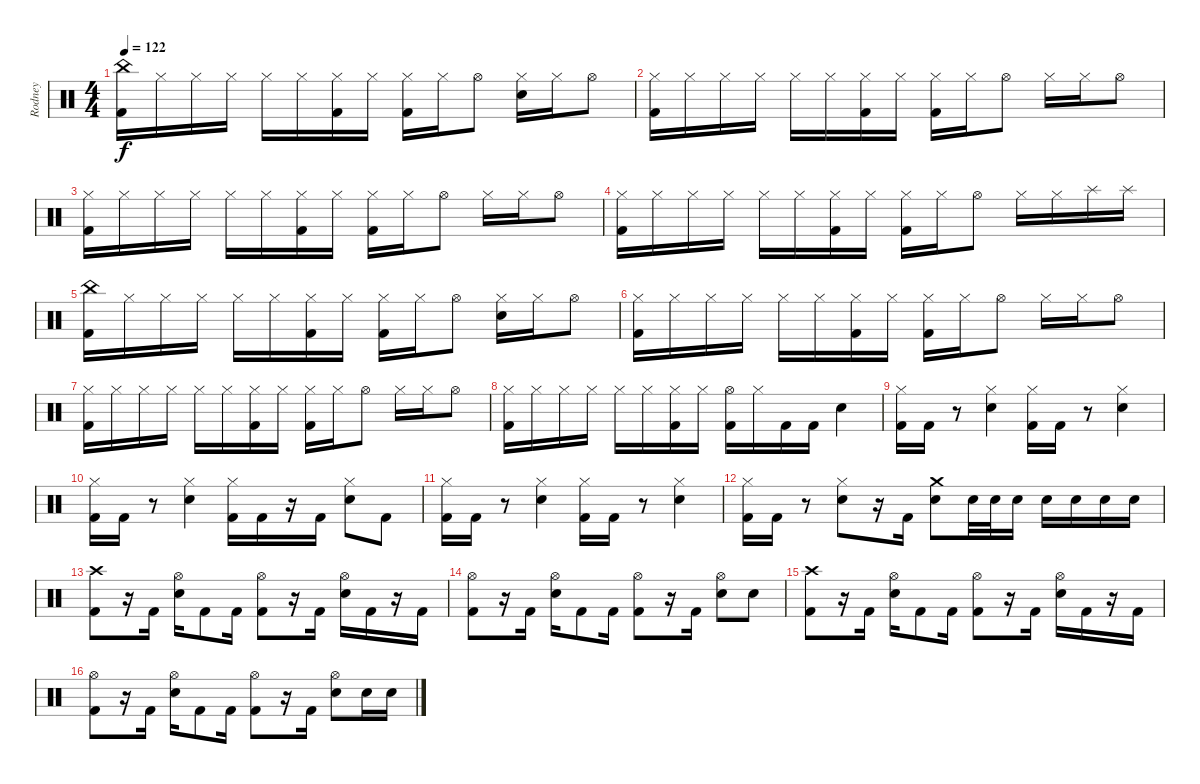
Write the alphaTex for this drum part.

\track ("Rodney" "Rodney") {instrument percussion}
\staff {score}
\articulation defaults
\ts (4 4)
\tempo 122
\clef neutral
\ks c
("China (hit)" "Kick (hit) 2").16{dy f} "Hi-Hat (closed)".16 "Hi-Hat (closed)".16 "Hi-Hat (closed)".16 "Hi-Hat (closed)".16 "Hi-Hat (closed)".16 ("Hi-Hat (closed)" "Kick (hit) 2").16 "Hi-Hat (closed)".16 ("Hi-Hat (closed)" "Kick (hit) 2").16 "Hi-Hat (closed)".16 "Hi-Hat (open)".8 ("Hi-Hat (closed)" "Snare (hit) 2").16 "Hi-Hat (closed)".16 "Hi-Hat (open)".8 |
("Hi-Hat (closed)" "Kick (hit) 2").16 "Hi-Hat (closed)".16 "Hi-Hat (closed)".16 "Hi-Hat (closed)".16 "Hi-Hat (closed)".16 "Hi-Hat (closed)".16 ("Hi-Hat (closed)" "Kick (hit) 2").16 "Hi-Hat (closed)".16 ("Hi-Hat (closed)" "Kick (hit) 2").16 "Hi-Hat (closed)".16 "Hi-Hat (open)".8 "Hi-Hat (closed)".16 "Hi-Hat (closed)".16 "Hi-Hat (open)".8 |
("Hi-Hat (closed)" "Kick (hit) 2").16 "Hi-Hat (closed)".16 "Hi-Hat (closed)".16 "Hi-Hat (closed)".16 "Hi-Hat (closed)".16 "Hi-Hat (closed)".16 ("Hi-Hat (closed)" "Kick (hit) 2").16 "Hi-Hat (closed)".16 ("Hi-Hat (closed)" "Kick (hit) 2").16 "Hi-Hat (closed)".16 "Hi-Hat (open)".8 "Hi-Hat (closed)".16 "Hi-Hat (closed)".16 "Hi-Hat (open)".8 |
("Hi-Hat (closed)" "Kick (hit) 2").16 "Hi-Hat (closed)".16 "Hi-Hat (closed)".16 "Hi-Hat (closed)".16 "Hi-Hat (closed)".16 "Hi-Hat (closed)".16 ("Hi-Hat (closed)" "Kick (hit) 2").16 "Hi-Hat (closed)".16 ("Hi-Hat (closed)" "Kick (hit) 2").16 "Hi-Hat (closed)".16 "Hi-Hat (open)".8 "Hi-Hat (closed)".16 "Hi-Hat (closed)".16 "Splash (hit)".16 "Splash (hit)".16 |
("China (hit)" "Kick (hit) 2").16 "Hi-Hat (closed)".16 "Hi-Hat (closed)".16 "Hi-Hat (closed)".16 "Hi-Hat (closed)".16 "Hi-Hat (closed)".16 ("Hi-Hat (closed)" "Kick (hit) 2").16 "Hi-Hat (closed)".16 ("Hi-Hat (closed)" "Kick (hit) 2").16 "Hi-Hat (closed)".16 "Hi-Hat (open)".8 ("Hi-Hat (closed)" "Snare (hit) 2").16 "Hi-Hat (closed)".16 "Hi-Hat (open)".8 |
("Hi-Hat (closed)" "Kick (hit) 2").16 "Hi-Hat (closed)".16 "Hi-Hat (closed)".16 "Hi-Hat (closed)".16 "Hi-Hat (closed)".16 "Hi-Hat (closed)".16 ("Hi-Hat (closed)" "Kick (hit) 2").16 "Hi-Hat (closed)".16 ("Hi-Hat (closed)" "Kick (hit) 2").16 "Hi-Hat (closed)".16 "Hi-Hat (open)".8 "Hi-Hat (closed)".16 "Hi-Hat (closed)".16 "Hi-Hat (open)".8 |
("Hi-Hat (closed)" "Kick (hit) 2").16 "Hi-Hat (closed)".16 "Hi-Hat (closed)".16 "Hi-Hat (closed)".16 "Hi-Hat (closed)".16 "Hi-Hat (closed)".16 ("Hi-Hat (closed)" "Kick (hit) 2").16 "Hi-Hat (closed)".16 ("Hi-Hat (closed)" "Kick (hit) 2").16 "Hi-Hat (closed)".16 "Hi-Hat (open)".8 "Hi-Hat (closed)".16 "Hi-Hat (closed)".16 "Hi-Hat (open)".8 |
("Hi-Hat (closed)" "Kick (hit) 2").16 "Hi-Hat (closed)".16 "Hi-Hat (closed)".16 "Hi-Hat (closed)".16 "Hi-Hat (closed)".16 "Hi-Hat (closed)".16 ("Hi-Hat (closed)" "Kick (hit) 2").16 "Hi-Hat (closed)".16 ("Hi-Hat (open)" "Kick (hit) 2").16 "Hi-Hat (closed)".16 "Kick (hit) 2".16 "Kick (hit) 2".16 "Snare (hit) 2".4 |
("Hi-Hat (closed)" "Kick (hit) 2").16 "Kick (hit) 2".16 r.8 ("Hi-Hat (closed)" "Snare (hit) 2").4 ("Hi-Hat (closed)" "Kick (hit) 2").16 "Kick (hit) 2".16 r.8 ("Hi-Hat (closed)" "Snare (hit) 2").4 |
("Hi-Hat (closed)" "Kick (hit) 2").16 "Kick (hit) 2".16 r.8 ("Hi-Hat (closed)" "Snare (hit) 2").4 ("Hi-Hat (closed)" "Kick (hit) 2").16 "Kick (hit) 2".16 r.16 "Kick (hit) 2".16 ("Hi-Hat (closed)" "Snare (hit) 2").8 "Kick (hit) 2".8 |
("Hi-Hat (closed)" "Kick (hit) 2").16 "Kick (hit) 2".16 r.8 ("Hi-Hat (closed)" "Snare (hit) 2").4 ("Hi-Hat (closed)" "Kick (hit) 2").16 "Kick (hit) 2".16 r.8 ("Hi-Hat (closed)" "Snare (hit) 2").4 |
("Hi-Hat (closed)" "Kick (hit) 2").16 "Kick (hit) 2".16 r.8 ("Hi-Hat (closed)" "Snare (hit) 2").8 r.16 "Kick (hit) 2".16 ("Crash medium (hit)" "Snare (hit) 2").8 "Snare (hit) 2".32 "Snare (hit) 2".32 "Snare (hit) 2".16 "Snare (hit) 2".16 "Snare (hit) 2".16 "Snare (hit) 2".16 "Snare (hit) 2".16 |
("Crash high (hit)" "Kick (hit) 2").8 r.16 "Kick (hit) 2".16 ("Hi-Hat (open)" "Snare (hit) 2").16 "Kick (hit) 2".8 "Kick (hit) 2".16 ("Hi-Hat (open)" "Kick (hit) 2").8 r.16 "Kick (hit) 2".16 ("Hi-Hat (open)" "Snare (hit) 2").16 "Kick (hit) 2".16 r.16 "Kick (hit) 2".16 |
("Hi-Hat (open)" "Kick (hit) 2").8 r.16 "Kick (hit) 2".16 ("Hi-Hat (open)" "Snare (hit) 2").16 "Kick (hit) 2".8 "Kick (hit) 2".16 ("Hi-Hat (open)" "Kick (hit) 2").8 r.16 "Kick (hit) 2".16 ("Hi-Hat (open)" "Snare (hit) 2").8 "Snare (hit) 2".8 |
("Crash high (hit)" "Kick (hit) 2").8 r.16 "Kick (hit) 2".16 ("Hi-Hat (open)" "Snare (hit) 2").16 "Kick (hit) 2".8 "Kick (hit) 2".16 ("Hi-Hat (open)" "Kick (hit) 2").8 r.16 "Kick (hit) 2".16 ("Hi-Hat (open)" "Snare (hit) 2").16 "Kick (hit) 2".16 r.16 "Kick (hit) 2".16 |
("Hi-Hat (open)" "Kick (hit) 2").8 r.16 "Kick (hit) 2".16 ("Hi-Hat (open)" "Snare (hit) 2").16 "Kick (hit) 2".8 "Kick (hit) 2".16 ("Hi-Hat (open)" "Kick (hit) 2").8 r.16 "Kick (hit) 2".16 ("Hi-Hat (open)" "Snare (hit) 2").8 "Snare (hit) 2".16 "Snare (hit) 2".16
